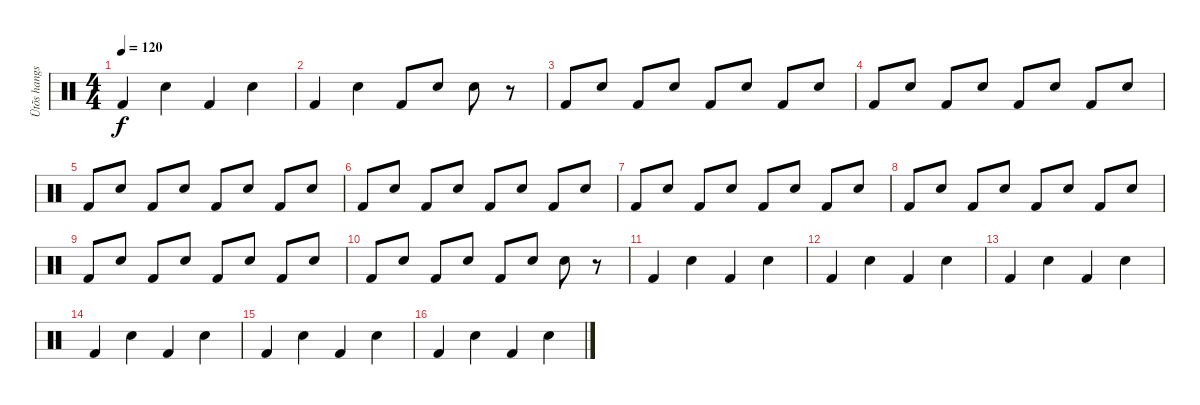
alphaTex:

\track ("Ütõs hangszer" "Ütõs hangs") {instrument percussion}
\staff {score}
\articulation defaults
\ts (4 4)
\tempo 120
\clef neutral
\ks c "Kick (hit) 2".4{dy f} "Electric Snare (hit)".4 "Kick (hit) 2".4 "Electric Snare (hit)".4
|
"Kick (hit) 2".4 "Electric Snare (hit)".4 "Kick (hit) 2".8 "Electric Snare (hit)".8 "Electric Snare (hit)".8 r.8 |
"Kick (hit) 2".8 "Electric Snare (hit)".8 "Kick (hit) 2".8 "Electric Snare (hit)".8 "Kick (hit) 2".8 "Electric Snare (hit)".8 "Kick (hit) 2".8 "Electric Snare (hit)".8 |
"Kick (hit) 2".8 "Electric Snare (hit)".8 "Kick (hit) 2".8 "Electric Snare (hit)".8 "Kick (hit) 2".8 "Electric Snare (hit)".8 "Kick (hit) 2".8 "Electric Snare (hit)".8 |
"Kick (hit) 2".8 "Electric Snare (hit)".8 "Kick (hit) 2".8 "Electric Snare (hit)".8 "Kick (hit) 2".8 "Electric Snare (hit)".8 "Kick (hit) 2".8 "Electric Snare (hit)".8 |
"Kick (hit) 2".8 "Electric Snare (hit)".8 "Kick (hit) 2".8 "Electric Snare (hit)".8 "Kick (hit) 2".8 "Electric Snare (hit)".8 "Kick (hit) 2".8 "Electric Snare (hit)".8 |
"Kick (hit) 2".8 "Electric Snare (hit)".8 "Kick (hit) 2".8 "Electric Snare (hit)".8 "Kick (hit) 2".8 "Electric Snare (hit)".8 "Kick (hit) 2".8 "Electric Snare (hit)".8 |
"Kick (hit) 2".8 "Electric Snare (hit)".8 "Kick (hit) 2".8 "Electric Snare (hit)".8 "Kick (hit) 2".8 "Electric Snare (hit)".8 "Kick (hit) 2".8 "Electric Snare (hit)".8 |
"Kick (hit) 2".8 "Electric Snare (hit)".8 "Kick (hit) 2".8 "Electric Snare (hit)".8 "Kick (hit) 2".8 "Electric Snare (hit)".8 "Kick (hit) 2".8 "Electric Snare (hit)".8 |
"Kick (hit) 2".8 "Electric Snare (hit)".8 "Kick (hit) 2".8 "Electric Snare (hit)".8 "Kick (hit) 2".8 "Electric Snare (hit)".8 "Electric Snare (hit)".8 r.8 |
"Kick (hit) 2".4 "Electric Snare (hit)".4 "Kick (hit) 2".4 "Electric Snare (hit)".4 |
"Kick (hit) 2".4 "Electric Snare (hit)".4 "Kick (hit) 2".4 "Electric Snare (hit)".4 |
"Kick (hit) 2".4 "Electric Snare (hit)".4 "Kick (hit) 2".4 "Electric Snare (hit)".4 |
"Kick (hit) 2".4 "Electric Snare (hit)".4 "Kick (hit) 2".4 "Electric Snare (hit)".4 |
"Kick (hit) 2".4 "Electric Snare (hit)".4 "Kick (hit) 2".4 "Electric Snare (hit)".4 |
"Kick (hit) 2".4 "Electric Snare (hit)".4 "Kick (hit) 2".4 "Electric Snare (hit)".4
